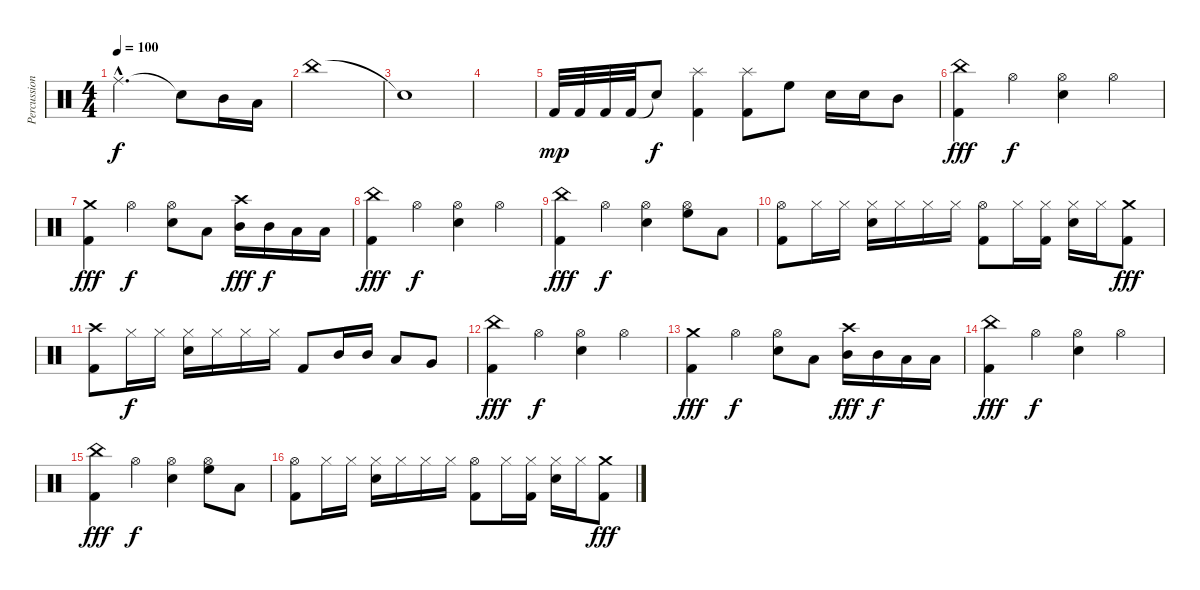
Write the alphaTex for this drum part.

\track ("Percussion" "Percussion") {instrument percussion}
\staff {score}
\articulation defaults
\ts (4 4)
\tempo 100
\clef neutral
\ks c "Ride (middle)"{hac}.2{d dy f} "Snare (hit)"{t}.8 "Mid Tom (hit)".16 "Low Tom (hit)".16
|
"China (hit)".1 |
"Snare (hit)"{t}.1 |
|
"Kick (hit) 2".32{dy mp} "Kick (hit) 2".32 "Kick (hit) 2".32 "Kick (hit) 2".32 "Snare (hit)"{t}.8{dy f} ("Splash (hit)" "Kick (hit) 2").4 ("Splash (hit)" "Kick (hit) 2").8 "High Floor Tom (hit)".8 "Electric Snare (hit)".16 "Electric Snare (hit)".16 "Mid Tom (hit)".8 |
("China (hit)" "Kick (hit) 2").4{dy fff} "Hi-Hat (open)".4{dy f} ("Hi-Hat (open)" "Electric Snare (hit)").4 "Hi-Hat (open)".4 |
("Crash medium (hit)" "Kick (hit) 2").4{dy fff} "Hi-Hat (open)".4{dy f} ("Hi-Hat (open)" "Electric Snare (hit)").8 "Low Tom (hit)".8 ("Crash high (hit)" "Mid Tom (hit)").16{dy fff} "Mid Tom (hit)".16{dy f} "Low Tom (hit)".16 "Low Tom (hit)".16 |
("China (hit)" "Kick (hit) 2").4{dy fff} "Hi-Hat (open)".4{dy f} ("Hi-Hat (open)" "Electric Snare (hit)").4 "Hi-Hat (open)".4 |
("China (hit)" "Kick (hit) 2").4{dy fff} "Hi-Hat (open)".4{dy f} ("Hi-Hat (open)" "Electric Snare (hit)").4 ("Hi-Hat (open)" "High Floor Tom (hit)").8 "Low Tom (hit)".8 |
("Hi-Hat (open)" "Kick (hit) 2").8 "Hi-Hat (closed)".16 "Hi-Hat (closed)".16 ("Hi-Hat (closed)" "Electric Snare (hit)").16 "Hi-Hat (closed)".16 "Hi-Hat (closed)".16 "Hi-Hat (closed)".16 ("Hi-Hat (open)" "Kick (hit) 2").8 "Hi-Hat (closed)".16 ("Hi-Hat (closed)" "Kick (hit) 2").16 ("Hi-Hat (closed)" "Electric Snare (hit)").16 "Hi-Hat (closed)".16 ("Crash medium (hit)" "Kick (hit) 2").8{dy fff} |
("Crash high (hit)" "Kick (hit) 2").8 "Hi-Hat (closed)".16{dy f} "Hi-Hat (closed)".16 ("Hi-Hat (closed)" "Electric Snare (hit)").16 "Hi-Hat (closed)".16 "Hi-Hat (closed)".16 "Hi-Hat (closed)".16 "Kick (hit) 2".8 "Mid Tom (hit)".16 "Mid Tom (hit)".16 "Low Tom (hit)".8 "Very Low Tom (hit)".8 |
("China (hit)" "Kick (hit) 2").4{dy fff} "Hi-Hat (open)".4{dy f} ("Hi-Hat (open)" "Electric Snare (hit)").4 "Hi-Hat (open)".4 |
("Crash medium (hit)" "Kick (hit) 2").4{dy fff} "Hi-Hat (open)".4{dy f} ("Hi-Hat (open)" "Electric Snare (hit)").8 "Low Tom (hit)".8 ("Crash high (hit)" "Mid Tom (hit)").16{dy fff} "Mid Tom (hit)".16{dy f} "Low Tom (hit)".16 "Low Tom (hit)".16 |
("China (hit)" "Kick (hit) 2").4{dy fff} "Hi-Hat (open)".4{dy f} ("Hi-Hat (open)" "Electric Snare (hit)").4 "Hi-Hat (open)".4 |
("China (hit)" "Kick (hit) 2").4{dy fff} "Hi-Hat (open)".4{dy f} ("Hi-Hat (open)" "Electric Snare (hit)").4 ("Hi-Hat (open)" "High Floor Tom (hit)").8 "Low Tom (hit)".8 |
("Hi-Hat (open)" "Kick (hit) 2").8 "Hi-Hat (closed)".16 "Hi-Hat (closed)".16 ("Hi-Hat (closed)" "Electric Snare (hit)").16 "Hi-Hat (closed)".16 "Hi-Hat (closed)".16 "Hi-Hat (closed)".16 ("Hi-Hat (open)" "Kick (hit) 2").8 "Hi-Hat (closed)".16 ("Hi-Hat (closed)" "Kick (hit) 2").16 ("Hi-Hat (closed)" "Electric Snare (hit)").16 "Hi-Hat (closed)".16 ("Crash medium (hit)" "Kick (hit) 2").8{dy fff}
